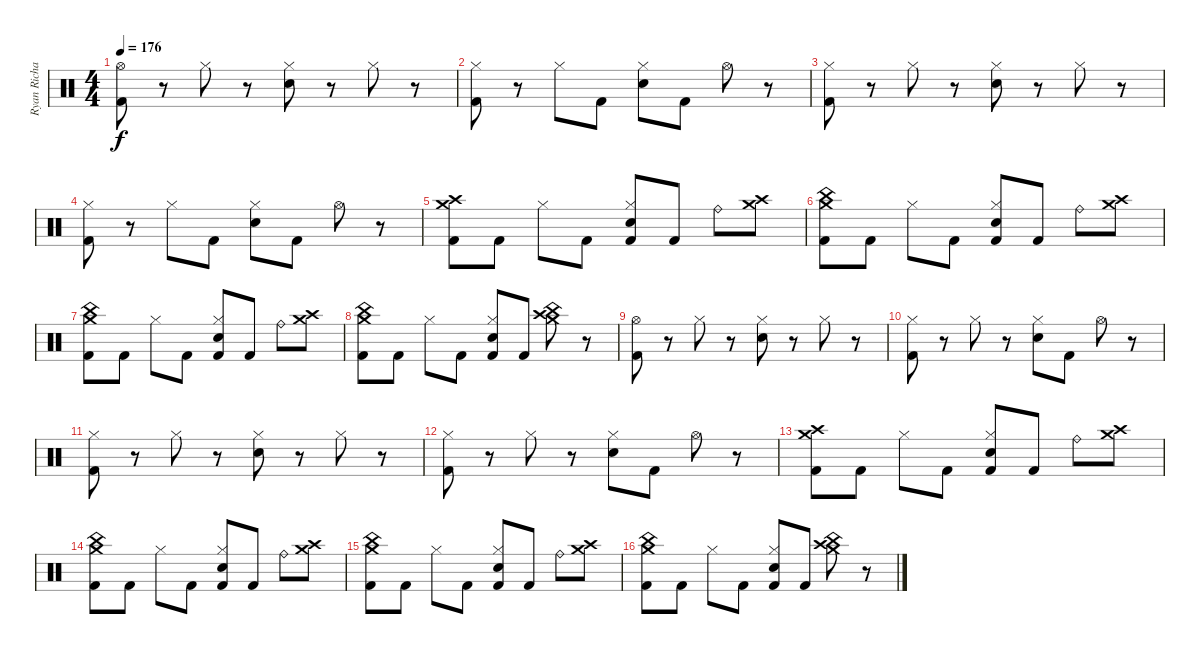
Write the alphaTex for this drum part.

\track ("Ryan Richards (drums)" "Ryan Richa") {instrument percussion}
\staff {score}
\articulation defaults
\ts (4 4)
\tempo 176
\clef neutral
\ks c
("Hi-Hat (open)" "Kick (hit) 2").8{dy f} r.8 "Hi-Hat (closed)".8 r.8 ("Snare (hit) 2" "Hi-Hat (closed)").8 r.8 "Hi-Hat (closed)".8 r.8 |
("Hi-Hat (closed)" "Kick (hit) 2").8 r.8 "Hi-Hat (closed)".8 "Kick (hit) 2".8 ("Snare (hit) 2" "Hi-Hat (closed)").8 "Kick (hit) 2".8 "Hi-Hat (open)".8 r.8 |
("Hi-Hat (closed)" "Kick (hit) 2").8 r.8 "Hi-Hat (closed)".8 r.8 ("Snare (hit) 2" "Hi-Hat (closed)").8 r.8 "Hi-Hat (closed)".8 r.8 |
("Hi-Hat (closed)" "Kick (hit) 2").8 r.8 "Hi-Hat (closed)".8 "Kick (hit) 2".8 ("Snare (hit) 2" "Hi-Hat (closed)").8 "Kick (hit) 2".8 "Hi-Hat (open)".8 r.8 |
("Crash medium (hit)" "Crash high (hit)" "Kick (hit) 2").8 "Kick (hit) 2".8 "Hi-Hat (closed)".8 "Kick (hit) 2".8 ("Snare (hit) 2" "Hi-Hat (closed)" "Kick (hit) 2").8 "Kick (hit) 2".8 "Ride (bell)".8 ("Crash medium (hit)" "Crash high (hit)").8 |
("Crash medium (hit)" "China (hit)" "Kick (hit) 2").8 "Kick (hit) 2".8 "Hi-Hat (closed)".8 "Kick (hit) 2".8 ("Snare (hit) 2" "Hi-Hat (closed)" "Kick (hit) 2").8 "Kick (hit) 2".8 "Ride (bell)".8 ("Crash medium (hit)" "Crash high (hit)").8 |
("Crash medium (hit)" "China (hit)" "Kick (hit) 2").8 "Kick (hit) 2".8 "Hi-Hat (closed)".8 "Kick (hit) 2".8 ("Snare (hit) 2" "Hi-Hat (closed)" "Kick (hit) 2").8 "Kick (hit) 2".8 "Ride (bell)".8 ("Crash medium (hit)" "Crash high (hit)").8 |
("China (hit)" "Crash medium (hit)" "Kick (hit) 2").8 "Kick (hit) 2".8 "Hi-Hat (closed)".8 "Kick (hit) 2".8 ("Snare (hit) 2" "Hi-Hat (closed)" "Kick (hit) 2").8 "Kick (hit) 2".8 ("China (hit)" "Crash medium (hit)" "Crash high (hit)").8 r.8 |
("Hi-Hat (open)" "Kick (hit) 2").8 r.8 "Hi-Hat (closed)".8 r.8 ("Snare (hit) 2" "Hi-Hat (closed)").8 r.8 "Hi-Hat (closed)".8 r.8 |
("Hi-Hat (closed)" "Kick (hit) 2").8 r.8 "Hi-Hat (closed)".8 r.8 ("Snare (hit) 2" "Hi-Hat (closed)").8 "Kick (hit) 2".8 "Hi-Hat (open)".8 r.8 |
("Hi-Hat (closed)" "Kick (hit) 2").8 r.8 "Hi-Hat (closed)".8 r.8 ("Snare (hit) 2" "Hi-Hat (closed)").8 r.8 "Hi-Hat (closed)".8 r.8 |
("Hi-Hat (closed)" "Kick (hit) 2").8 r.8 "Hi-Hat (closed)".8 r.8 ("Snare (hit) 2" "Hi-Hat (closed)").8 "Kick (hit) 2".8 "Hi-Hat (open)".8 r.8 |
("Crash medium (hit)" "Crash high (hit)" "Kick (hit) 2").8 "Kick (hit) 2".8 "Hi-Hat (closed)".8 "Kick (hit) 2".8 ("Snare (hit) 2" "Hi-Hat (closed)" "Kick (hit) 2").8 "Kick (hit) 2".8 "Ride (bell)".8 ("Crash medium (hit)" "Crash high (hit)").8 |
("Crash medium (hit)" "China (hit)" "Kick (hit) 2").8 "Kick (hit) 2".8 "Hi-Hat (closed)".8 "Kick (hit) 2".8 ("Snare (hit) 2" "Hi-Hat (closed)" "Kick (hit) 2").8 "Kick (hit) 2".8 "Ride (bell)".8 ("Crash medium (hit)" "Crash high (hit)").8 |
("Crash medium (hit)" "China (hit)" "Kick (hit) 2").8 "Kick (hit) 2".8 "Hi-Hat (closed)".8 "Kick (hit) 2".8 ("Snare (hit) 2" "Hi-Hat (closed)" "Kick (hit) 2").8 "Kick (hit) 2".8 "Ride (bell)".8 ("Crash medium (hit)" "Crash high (hit)").8 |
("China (hit)" "Crash medium (hit)" "Kick (hit) 2").8 "Kick (hit) 2".8 "Hi-Hat (closed)".8 "Kick (hit) 2".8 ("Snare (hit) 2" "Hi-Hat (closed)" "Kick (hit) 2").8 "Kick (hit) 2".8 ("China (hit)" "Crash medium (hit)" "Crash high (hit)").8 r.8
